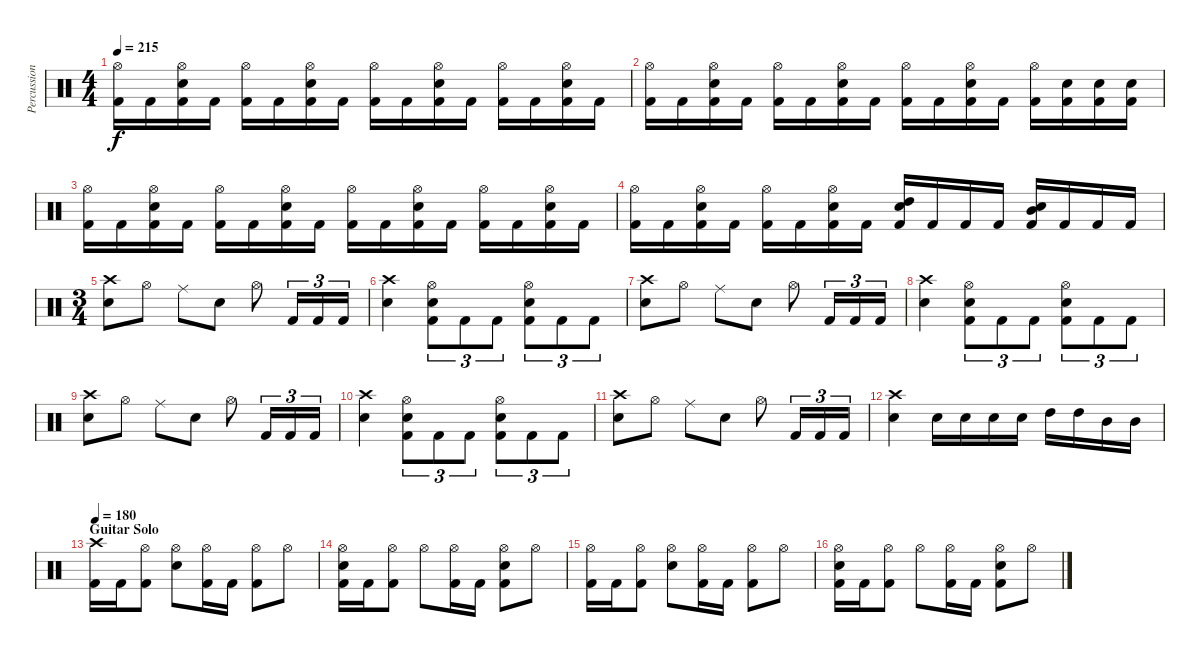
\track ("Percussion" "Percussion") {instrument percussion}
\staff {score}
\articulation defaults
\ts (4 4)
\tempo 215
\clef neutral
\ks c
("Hi-Hat (open)" "Kick (hit) 2").16{dy f} "Kick (hit) 2".16 ("Hi-Hat (open)" "Electric Snare (hit)" "Kick (hit) 2").16 "Kick (hit) 2".16 ("Hi-Hat (open)" "Kick (hit) 2").16 "Kick (hit) 2".16 ("Hi-Hat (open)" "Electric Snare (hit)" "Kick (hit) 2").16 "Kick (hit) 2".16 ("Hi-Hat (open)" "Kick (hit) 2").16 "Kick (hit) 2".16 ("Hi-Hat (open)" "Electric Snare (hit)" "Kick (hit) 2").16 "Kick (hit) 2".16 ("Hi-Hat (open)" "Kick (hit) 2").16 "Kick (hit) 2".16 ("Hi-Hat (open)" "Electric Snare (hit)" "Kick (hit) 2").16 "Kick (hit) 2".16 |
("Hi-Hat (open)" "Kick (hit) 2").16 "Kick (hit) 2".16 ("Hi-Hat (open)" "Electric Snare (hit)" "Kick (hit) 2").16 "Kick (hit) 2".16 ("Hi-Hat (open)" "Kick (hit) 2").16 "Kick (hit) 2".16 ("Hi-Hat (open)" "Electric Snare (hit)" "Kick (hit) 2").16 "Kick (hit) 2".16 ("Hi-Hat (open)" "Kick (hit) 2").16 "Kick (hit) 2".16 ("Hi-Hat (open)" "Electric Snare (hit)" "Kick (hit) 2").16 "Kick (hit) 2".16 ("Hi-Hat (open)" "Kick (hit) 2").16 ("Electric Snare (hit)" "Kick (hit) 2").16 ("Electric Snare (hit)" "Kick (hit) 2").16 ("Electric Snare (hit)" "Kick (hit) 2").16 |
("Hi-Hat (open)" "Kick (hit) 2").16 "Kick (hit) 2".16 ("Hi-Hat (open)" "Electric Snare (hit)" "Kick (hit) 2").16 "Kick (hit) 2".16 ("Hi-Hat (open)" "Kick (hit) 2").16 "Kick (hit) 2".16 ("Hi-Hat (open)" "Electric Snare (hit)" "Kick (hit) 2").16 "Kick (hit) 2".16 ("Hi-Hat (open)" "Kick (hit) 2").16 "Kick (hit) 2".16 ("Hi-Hat (open)" "Electric Snare (hit)" "Kick (hit) 2").16 "Kick (hit) 2".16 ("Hi-Hat (open)" "Kick (hit) 2").16 "Kick (hit) 2".16 ("Hi-Hat (open)" "Electric Snare (hit)" "Kick (hit) 2").16 "Kick (hit) 2".16 |
("Hi-Hat (open)" "Kick (hit) 2").16 "Kick (hit) 2".16 ("Hi-Hat (open)" "Electric Snare (hit)" "Kick (hit) 2").16 "Kick (hit) 2".16 ("Hi-Hat (open)" "Kick (hit) 2").16 "Kick (hit) 2".16 ("Hi-Hat (open)" "Electric Snare (hit)" "Kick (hit) 2").16 "Kick (hit) 2".16 ("High Tom (hit)" "Electric Snare (hit)" "Kick (hit) 2").16 "Kick (hit) 2".16 "Kick (hit) 2".16 "Kick (hit) 2".16 ("Mid Tom (hit)" "Electric Snare (hit)" "Kick (hit) 2").16 "Kick (hit) 2".16 "Kick (hit) 2".16 "Kick (hit) 2".16 |
\ts (3 4)
("Crash high (hit)" "Electric Snare (hit)").8 "Hi-Hat (open)".8 "Ride (middle)".8 "Electric Snare (hit)".8 "Hi-Hat (open)".8 "Kick (hit) 2".16{tu (3 2)} "Kick (hit) 2".16{tu (3 2)} "Kick (hit) 2".16{tu (3 2)} |
("Crash high (hit)" "Electric Snare (hit)").4 ("Hi-Hat (open)" "Electric Snare (hit)" "Kick (hit) 2").8{tu (3 2)} "Kick (hit) 2".8{tu (3 2)} "Kick (hit) 2".8{tu (3 2)} ("Hi-Hat (open)" "Electric Snare (hit)" "Kick (hit) 2").8{tu (3 2)} "Kick (hit) 2".8{tu (3 2)} "Kick (hit) 2".8{tu (3 2)} |
("Crash high (hit)" "Electric Snare (hit)").8 "Hi-Hat (open)".8 "Ride (middle)".8 "Electric Snare (hit)".8 "Hi-Hat (open)".8 "Kick (hit) 2".16{tu (3 2)} "Kick (hit) 2".16{tu (3 2)} "Kick (hit) 2".16{tu (3 2)} |
("Crash high (hit)" "Electric Snare (hit)").4 ("Hi-Hat (open)" "Electric Snare (hit)" "Kick (hit) 2").8{tu (3 2)} "Kick (hit) 2".8{tu (3 2)} "Kick (hit) 2".8{tu (3 2)} ("Hi-Hat (open)" "Electric Snare (hit)" "Kick (hit) 2").8{tu (3 2)} "Kick (hit) 2".8{tu (3 2)} "Kick (hit) 2".8{tu (3 2)} |
("Crash high (hit)" "Electric Snare (hit)").8 "Hi-Hat (open)".8 "Ride (middle)".8 "Electric Snare (hit)".8 "Hi-Hat (open)".8 "Kick (hit) 2".16{tu (3 2)} "Kick (hit) 2".16{tu (3 2)} "Kick (hit) 2".16{tu (3 2)} |
("Crash high (hit)" "Electric Snare (hit)").4 ("Hi-Hat (open)" "Electric Snare (hit)" "Kick (hit) 2").8{tu (3 2)} "Kick (hit) 2".8{tu (3 2)} "Kick (hit) 2".8{tu (3 2)} ("Hi-Hat (open)" "Electric Snare (hit)" "Kick (hit) 2").8{tu (3 2)} "Kick (hit) 2".8{tu (3 2)} "Kick (hit) 2".8{tu (3 2)} |
("Crash high (hit)" "Electric Snare (hit)").8 "Hi-Hat (open)".8 "Ride (middle)".8 "Electric Snare (hit)".8 "Hi-Hat (open)".8 "Kick (hit) 2".16{tu (3 2)} "Kick (hit) 2".16{tu (3 2)} "Kick (hit) 2".16{tu (3 2)} |
("Crash high (hit)" "Electric Snare (hit)").4 "Electric Snare (hit)".16 "Electric Snare (hit)".16 "Electric Snare (hit)".16 "Electric Snare (hit)".16 "High Tom (hit)".16 "High Tom (hit)".16 "Mid Tom (hit)".16 "Mid Tom (hit)".16 |
\section ("" "Guitar Solo")
\tempo 180
("Crash high (hit)" "Kick (hit) 2").16 "Kick (hit) 2".16 ("Hi-Hat (open)" "Kick (hit) 2").8 ("Hi-Hat (open)" "Electric Snare (hit)").8 ("Hi-Hat (open)" "Kick (hit) 2").16 "Kick (hit) 2".16 ("Hi-Hat (open)" "Kick (hit) 2").8 "Hi-Hat (open)".8 |
("Hi-Hat (open)" "Electric Snare (hit)" "Kick (hit) 2").16 "Kick (hit) 2".16 ("Hi-Hat (open)" "Kick (hit) 2").8 "Hi-Hat (open)".8 ("Hi-Hat (open)" "Kick (hit) 2").16 "Kick (hit) 2".16 ("Hi-Hat (open)" "Electric Snare (hit)" "Kick (hit) 2").8 "Hi-Hat (open)".8 |
("Hi-Hat (open)" "Kick (hit) 2").16 "Kick (hit) 2".16 ("Hi-Hat (open)" "Kick (hit) 2").8 ("Hi-Hat (open)" "Electric Snare (hit)").8 ("Hi-Hat (open)" "Kick (hit) 2").16 "Kick (hit) 2".16 ("Hi-Hat (open)" "Kick (hit) 2").8 "Hi-Hat (open)".8 |
("Hi-Hat (open)" "Electric Snare (hit)" "Kick (hit) 2").16 "Kick (hit) 2".16 ("Hi-Hat (open)" "Kick (hit) 2").8 "Hi-Hat (open)".8 ("Hi-Hat (open)" "Kick (hit) 2").16 "Kick (hit) 2".16 ("Hi-Hat (open)" "Electric Snare (hit)" "Kick (hit) 2").8 "Hi-Hat (open)".8
